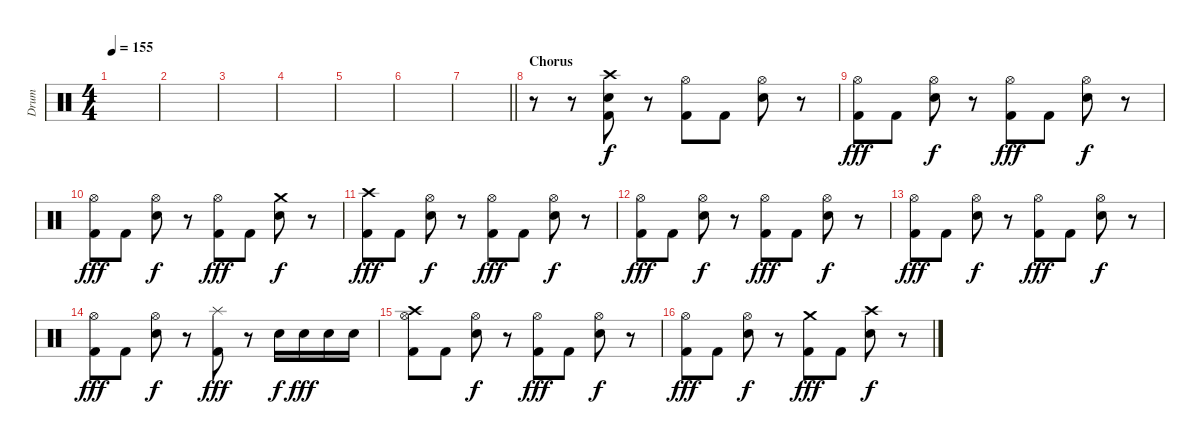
\track ("Drum" "Drum") {instrument percussion}
\staff {score}
\articulation defaults
\ts (4 4)
\tempo 155
\clef neutral
\ks c
|
|
|
|
|
|
\barLineRight lightlight
|
\section ("" "Chorus")
r.8 r.8 ("Crash high (hit)" "Snare (hit) 2" "Kick (hit) 2").8 r.8 ("Hi-Hat (open)" "Kick (hit) 2").8 "Kick (hit) 2".8 ("Hi-Hat (open)" "Snare (hit) 2").8 r.8 |
("Hi-Hat (open)" "Kick (hit) 2").8{dy fff} "Kick (hit) 2".8 ("Hi-Hat (open)" "Snare (hit) 2").8{dy f} r.8 ("Hi-Hat (open)" "Kick (hit) 2").8{dy fff} "Kick (hit) 2".8 ("Hi-Hat (open)" "Snare (hit) 2").8{dy f} r.8 |
("Hi-Hat (open)" "Kick (hit) 2").8{dy fff} "Kick (hit) 2".8 ("Hi-Hat (open)" "Snare (hit) 2").8{dy f} r.8 ("Hi-Hat (open)" "Kick (hit) 2").8{dy fff} "Kick (hit) 2".8 ("Crash medium (hit)" "Snare (hit) 2").8{dy f} r.8 |
("Crash high (hit)" "Kick (hit) 2").8{dy fff} "Kick (hit) 2".8 ("Hi-Hat (open)" "Snare (hit) 2").8{dy f} r.8 ("Hi-Hat (open)" "Kick (hit) 2").8{dy fff} "Kick (hit) 2".8 ("Hi-Hat (open)" "Snare (hit) 2").8{dy f} r.8 |
("Hi-Hat (open)" "Kick (hit) 2").8{dy fff} "Kick (hit) 2".8 ("Hi-Hat (open)" "Snare (hit) 2").8{dy f} r.8 ("Hi-Hat (open)" "Kick (hit) 2").8{dy fff} "Kick (hit) 2".8 ("Hi-Hat (open)" "Snare (hit) 2").8{dy f} r.8 |
("Hi-Hat (open)" "Kick (hit) 2").8{dy fff} "Kick (hit) 2".8 ("Hi-Hat (open)" "Snare (hit) 2").8{dy f} r.8 ("Hi-Hat (open)" "Kick (hit) 2").8{dy fff} "Kick (hit) 2".8 ("Hi-Hat (open)" "Snare (hit) 2").8{dy f} r.8 |
("Hi-Hat (open)" "Kick (hit) 2").8{dy fff} "Kick (hit) 2".8 ("Hi-Hat (open)" "Snare (hit) 2").8{dy f} r.8 ("Splash (hit)" "Kick (hit) 2").8{dy fff} r.8 "Snare (hit) 2".16{dy f} "Snare (hit) 2".16{dy fff} "Snare (hit) 2".16 "Snare (hit) 2".16 |
("Hi-Hat (open)" "Crash high (hit)" "Kick (hit) 2").8 "Kick (hit) 2".8 ("Hi-Hat (open)" "Snare (hit) 2").8{dy f} r.8 ("Hi-Hat (open)" "Kick (hit) 2").8{dy fff} "Kick (hit) 2".8 ("Hi-Hat (open)" "Snare (hit) 2").8{dy f} r.8 |
("Hi-Hat (open)" "Kick (hit) 2").8{dy fff} "Kick (hit) 2".8 ("Hi-Hat (open)" "Snare (hit) 2").8{dy f} r.8 ("Crash medium (hit)" "Kick (hit) 2").8{dy fff} "Kick (hit) 2".8 ("Crash high (hit)" "Snare (hit) 2").8{dy f} r.8
